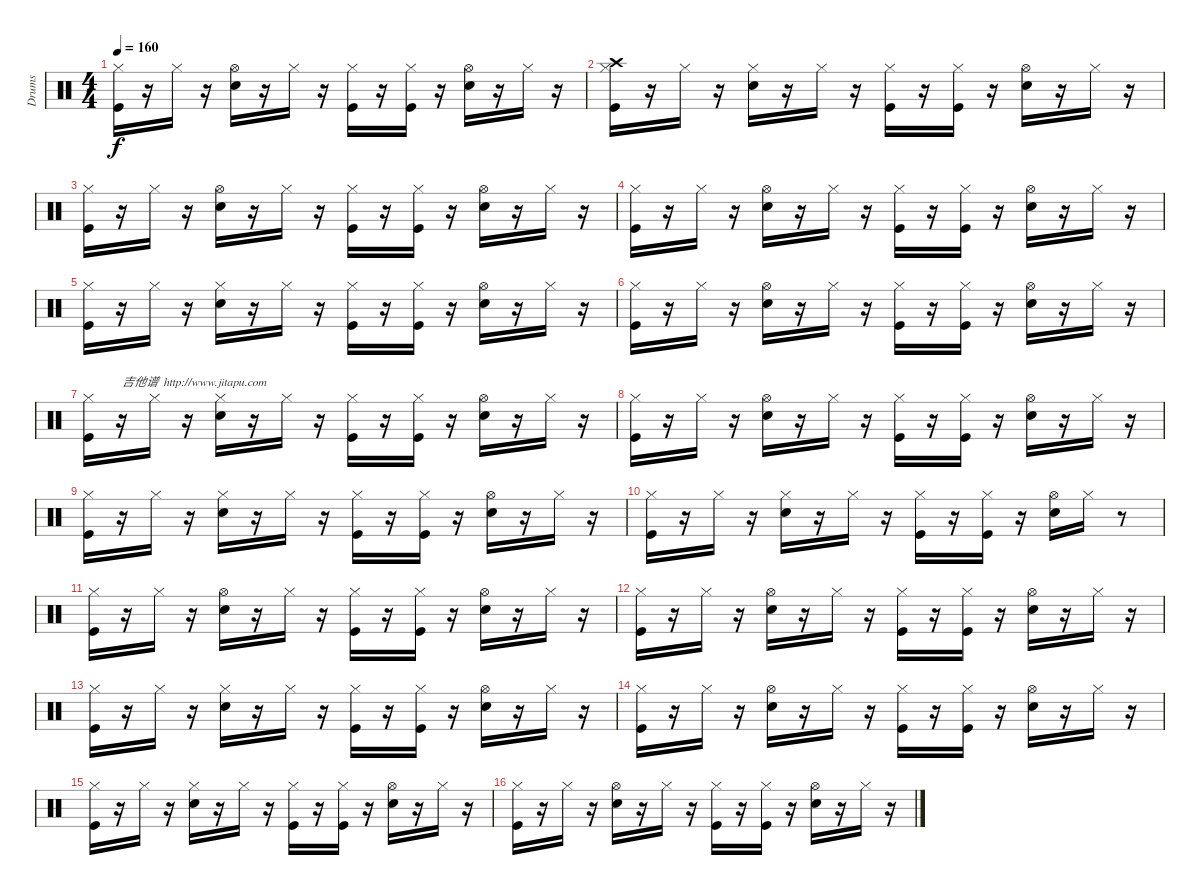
\track ("Drums" "Drums") {instrument percussion}
\staff {score}
\articulation defaults
\ts (4 4)
\tempo 160
\clef neutral
\ks c
("Hi-Hat (closed)" "Kick (hit)").16{dy f} r.16 "Hi-Hat (closed)".16 r.16 ("Hi-Hat (open)" "Snare (hit) 2").16 r.16 "Hi-Hat (closed)".16 r.16 ("Hi-Hat (closed)" "Kick (hit)").16 r.16 ("Kick (hit)" "Hi-Hat (closed)").16 r.16 ("Hi-Hat (open)" "Snare (hit) 2").16 r.16 "Hi-Hat (closed)".16 r.16 |
("Crash high (hit)" "Hi-Hat (closed)" "Kick (hit)").16 r.16 "Hi-Hat (closed)".16 r.16 ("Hi-Hat (closed)" "Snare (hit) 2").16 r.16 "Hi-Hat (closed)".16 r.16 ("Hi-Hat (closed)" "Kick (hit)").16 r.16 ("Kick (hit)" "Hi-Hat (closed)").16 r.16 ("Hi-Hat (open)" "Snare (hit) 2").16 r.16 "Hi-Hat (closed)".16 r.16 |
("Hi-Hat (closed)" "Kick (hit)").16 r.16 "Hi-Hat (closed)".16 r.16 ("Hi-Hat (open)" "Snare (hit) 2").16 r.16 "Hi-Hat (closed)".16 r.16 ("Hi-Hat (closed)" "Kick (hit)").16 r.16 ("Kick (hit)" "Hi-Hat (closed)").16 r.16 ("Hi-Hat (open)" "Snare (hit) 2").16 r.16 "Hi-Hat (closed)".16 r.16 |
("Hi-Hat (closed)" "Kick (hit)").16 r.16 "Hi-Hat (closed)".16 r.16 ("Hi-Hat (open)" "Snare (hit) 2").16 r.16 "Hi-Hat (closed)".16 r.16 ("Hi-Hat (closed)" "Kick (hit)").16 r.16 ("Kick (hit)" "Hi-Hat (closed)").16 r.16 ("Hi-Hat (open)" "Snare (hit) 2").16 r.16 "Hi-Hat (closed)".16 r.16 |
("Hi-Hat (closed)" "Kick (hit)").16 r.16 "Hi-Hat (closed)".16 r.16 ("Hi-Hat (closed)" "Snare (hit) 2").16 r.16 "Hi-Hat (closed)".16 r.16 ("Hi-Hat (closed)" "Kick (hit)").16 r.16 ("Kick (hit)" "Hi-Hat (closed)").16 r.16 ("Hi-Hat (open)" "Snare (hit) 2").16 r.16 "Hi-Hat (closed)".16 r.16 |
("Hi-Hat (closed)" "Kick (hit)").16 r.16 "Hi-Hat (closed)".16 r.16 ("Hi-Hat (open)" "Snare (hit) 2").16 r.16 "Hi-Hat (closed)".16 r.16 ("Hi-Hat (closed)" "Kick (hit)").16 r.16 ("Kick (hit)" "Hi-Hat (closed)").16 r.16 ("Hi-Hat (open)" "Snare (hit) 2").16 r.16 "Hi-Hat (closed)".16 r.16 |
("Hi-Hat (closed)" "Kick (hit)").16 r.16{txt "吉他谱  http://www.jitapu.com"} "Hi-Hat (closed)".16 r.16 ("Hi-Hat (closed)" "Snare (hit) 2").16 r.16 "Hi-Hat (closed)".16 r.16 ("Hi-Hat (closed)" "Kick (hit)").16 r.16 ("Kick (hit)" "Hi-Hat (closed)").16 r.16 ("Hi-Hat (open)" "Snare (hit) 2").16 r.16 "Hi-Hat (closed)".16 r.16 |
("Hi-Hat (closed)" "Kick (hit)").16 r.16 "Hi-Hat (closed)".16 r.16 ("Hi-Hat (open)" "Snare (hit) 2").16 r.16 "Hi-Hat (closed)".16 r.16 ("Hi-Hat (closed)" "Kick (hit)").16 r.16 ("Kick (hit)" "Hi-Hat (closed)").16 r.16 ("Hi-Hat (open)" "Snare (hit) 2").16 r.16 "Hi-Hat (closed)".16 r.16 |
("Hi-Hat (closed)" "Kick (hit)").16 r.16 "Hi-Hat (closed)".16 r.16 ("Hi-Hat (closed)" "Snare (hit) 2").16 r.16 "Hi-Hat (closed)".16 r.16 ("Hi-Hat (closed)" "Kick (hit)").16 r.16 ("Kick (hit)" "Hi-Hat (closed)").16 r.16 ("Hi-Hat (open)" "Snare (hit) 2").16 r.16 "Hi-Hat (closed)".16 r.16 |
("Hi-Hat (closed)" "Kick (hit)").16 r.16 "Hi-Hat (closed)".16 r.16 ("Hi-Hat (closed)" "Snare (hit) 2").16 r.16 "Hi-Hat (closed)".16 r.16 ("Hi-Hat (closed)" "Kick (hit)").16 r.16 ("Kick (hit)" "Hi-Hat (closed)").16 r.16 ("Hi-Hat (open)" "Snare (hit) 2").16 "Hi-Hat (closed)".16 r.8 |
("Hi-Hat (closed)" "Kick (hit)").16 r.16 "Hi-Hat (closed)".16 r.16 ("Hi-Hat (open)" "Snare (hit) 2").16 r.16 "Hi-Hat (closed)".16 r.16 ("Hi-Hat (closed)" "Kick (hit)").16 r.16 ("Kick (hit)" "Hi-Hat (closed)").16 r.16 ("Hi-Hat (open)" "Snare (hit) 2").16 r.16 "Hi-Hat (closed)".16 r.16 |
("Hi-Hat (closed)" "Kick (hit)").16 r.16 "Hi-Hat (closed)".16 r.16 ("Hi-Hat (open)" "Snare (hit) 2").16 r.16 "Hi-Hat (closed)".16 r.16 ("Hi-Hat (closed)" "Kick (hit)").16 r.16 ("Kick (hit)" "Hi-Hat (closed)").16 r.16 ("Hi-Hat (open)" "Snare (hit) 2").16 r.16 "Hi-Hat (closed)".16 r.16 |
("Hi-Hat (closed)" "Kick (hit)").16 r.16 "Hi-Hat (closed)".16 r.16 ("Hi-Hat (closed)" "Snare (hit) 2").16 r.16 "Hi-Hat (closed)".16 r.16 ("Hi-Hat (closed)" "Kick (hit)").16 r.16 ("Kick (hit)" "Hi-Hat (closed)").16 r.16 ("Hi-Hat (open)" "Snare (hit) 2").16 r.16 "Hi-Hat (closed)".16 r.16 |
("Hi-Hat (closed)" "Kick (hit)").16 r.16 "Hi-Hat (closed)".16 r.16 ("Hi-Hat (open)" "Snare (hit) 2").16 r.16 "Hi-Hat (closed)".16 r.16 ("Hi-Hat (closed)" "Kick (hit)").16 r.16 ("Kick (hit)" "Hi-Hat (closed)").16 r.16 ("Hi-Hat (open)" "Snare (hit) 2").16 r.16 "Hi-Hat (closed)".16 r.16 |
("Hi-Hat (closed)" "Kick (hit)").16 r.16 "Hi-Hat (closed)".16 r.16 ("Hi-Hat (closed)" "Snare (hit) 2").16 r.16 "Hi-Hat (closed)".16 r.16 ("Hi-Hat (closed)" "Kick (hit)").16 r.16 ("Kick (hit)" "Hi-Hat (closed)").16 r.16 ("Hi-Hat (open)" "Snare (hit) 2").16 r.16 "Hi-Hat (closed)".16 r.16 |
("Hi-Hat (closed)" "Kick (hit)").16 r.16 "Hi-Hat (closed)".16 r.16 ("Hi-Hat (open)" "Snare (hit) 2").16 r.16 "Hi-Hat (closed)".16 r.16 ("Hi-Hat (closed)" "Kick (hit)").16 r.16 ("Kick (hit)" "Hi-Hat (closed)").16 r.16 ("Hi-Hat (open)" "Snare (hit) 2").16 r.16 "Hi-Hat (closed)".16 r.16
